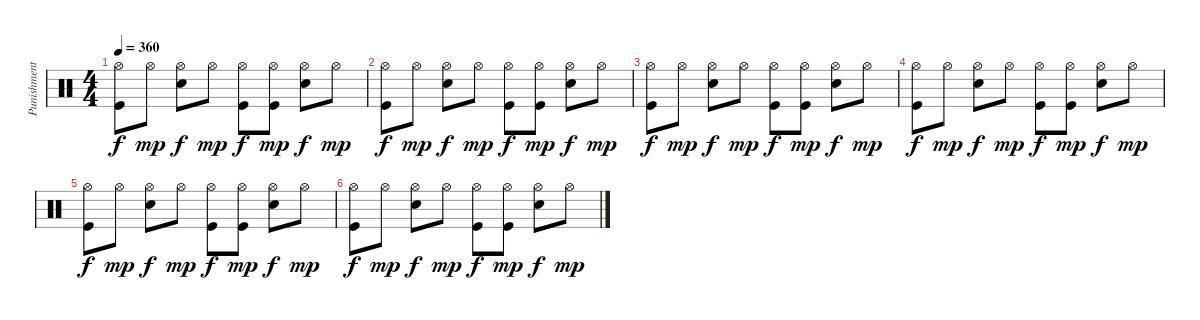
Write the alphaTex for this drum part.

\track ("Punishment" "Punishment") {instrument percussion}
\staff {score}
\articulation defaults
\ts (4 4)
\tempo 360
\clef neutral
\ks c
("Hi-Hat (open)" "Kick (hit)").8{dy f} "Hi-Hat (open)".8{dy mp} ("Hi-Hat (open)" "Electric Snare (hit)").8{dy f} "Hi-Hat (open)".8{dy mp} ("Hi-Hat (open)" "Kick (hit)").8{dy f} ("Hi-Hat (open)" "Kick (hit)").8{dy mp} ("Hi-Hat (open)" "Electric Snare (hit)").8{dy f} "Hi-Hat (open)".8{dy mp} |
("Hi-Hat (open)" "Kick (hit)").8{dy f} "Hi-Hat (open)".8{dy mp} ("Hi-Hat (open)" "Electric Snare (hit)").8{dy f} "Hi-Hat (open)".8{dy mp} ("Hi-Hat (open)" "Kick (hit)").8{dy f} ("Hi-Hat (open)" "Kick (hit)").8{dy mp} ("Hi-Hat (open)" "Electric Snare (hit)").8{dy f} "Hi-Hat (open)".8{dy mp} |
("Hi-Hat (open)" "Kick (hit)").8{dy f} "Hi-Hat (open)".8{dy mp} ("Hi-Hat (open)" "Electric Snare (hit)").8{dy f} "Hi-Hat (open)".8{dy mp} ("Hi-Hat (open)" "Kick (hit)").8{dy f} ("Hi-Hat (open)" "Kick (hit)").8{dy mp} ("Hi-Hat (open)" "Electric Snare (hit)").8{dy f} "Hi-Hat (open)".8{dy mp} |
("Hi-Hat (open)" "Kick (hit)").8{dy f} "Hi-Hat (open)".8{dy mp} ("Hi-Hat (open)" "Electric Snare (hit)").8{dy f} "Hi-Hat (open)".8{dy mp} ("Hi-Hat (open)" "Kick (hit)").8{dy f} ("Hi-Hat (open)" "Kick (hit)").8{dy mp} ("Hi-Hat (open)" "Electric Snare (hit)").8{dy f} "Hi-Hat (open)".8{dy mp} |
("Hi-Hat (open)" "Kick (hit)").8{dy f} "Hi-Hat (open)".8{dy mp} ("Hi-Hat (open)" "Electric Snare (hit)").8{dy f} "Hi-Hat (open)".8{dy mp} ("Hi-Hat (open)" "Kick (hit)").8{dy f} ("Hi-Hat (open)" "Kick (hit)").8{dy mp} ("Hi-Hat (open)" "Electric Snare (hit)").8{dy f} "Hi-Hat (open)".8{dy mp} |
("Hi-Hat (open)" "Kick (hit)").8{dy f} "Hi-Hat (open)".8{dy mp} ("Hi-Hat (open)" "Electric Snare (hit)").8{dy f} "Hi-Hat (open)".8{dy mp} ("Hi-Hat (open)" "Kick (hit)").8{dy f} ("Hi-Hat (open)" "Kick (hit)").8{dy mp} ("Hi-Hat (open)" "Electric Snare (hit)").8{dy f} "Hi-Hat (open)".8{dy mp}
